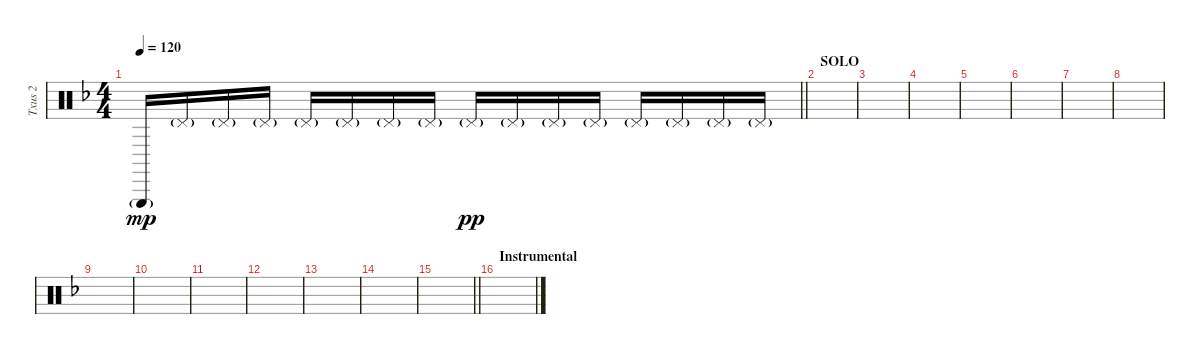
\track ("Txus 2" "Txus 2") {instrument percussion}
\staff {score}
\articulation defaults
\ts (4 4)
\tempo 120
\clef neutral
\barLineRight lightlight
\ks dminor "Triangle (hit)"{g}.16{dy mp} "Pedal Hi-Hat (hit)"{g}.16 "Pedal Hi-Hat (hit)"{g}.16 "Pedal Hi-Hat (hit)"{g}.16 "Pedal Hi-Hat (hit)"{g}.16 "Pedal Hi-Hat (hit)"{g}.16 "Pedal Hi-Hat (hit)"{g}.16 "Pedal Hi-Hat (hit)"{g}.16 "Pedal Hi-Hat (hit)"{g}.16{dy pp} "Pedal Hi-Hat (hit)"{g}.16 "Pedal Hi-Hat (hit)"{g}.16 "Pedal Hi-Hat (hit)"{g}.16 "Pedal Hi-Hat (hit)"{g}.16 "Pedal Hi-Hat (hit)"{g}.16 "Pedal Hi-Hat (hit)"{g}.16 "Pedal Hi-Hat (hit)"{g}.16
|
\section ("" "SOLO")
|
|
|
|
|
|
|
|
|
|
|
|
|
\barLineRight lightlight
|
\section ("" "Instrumental")
